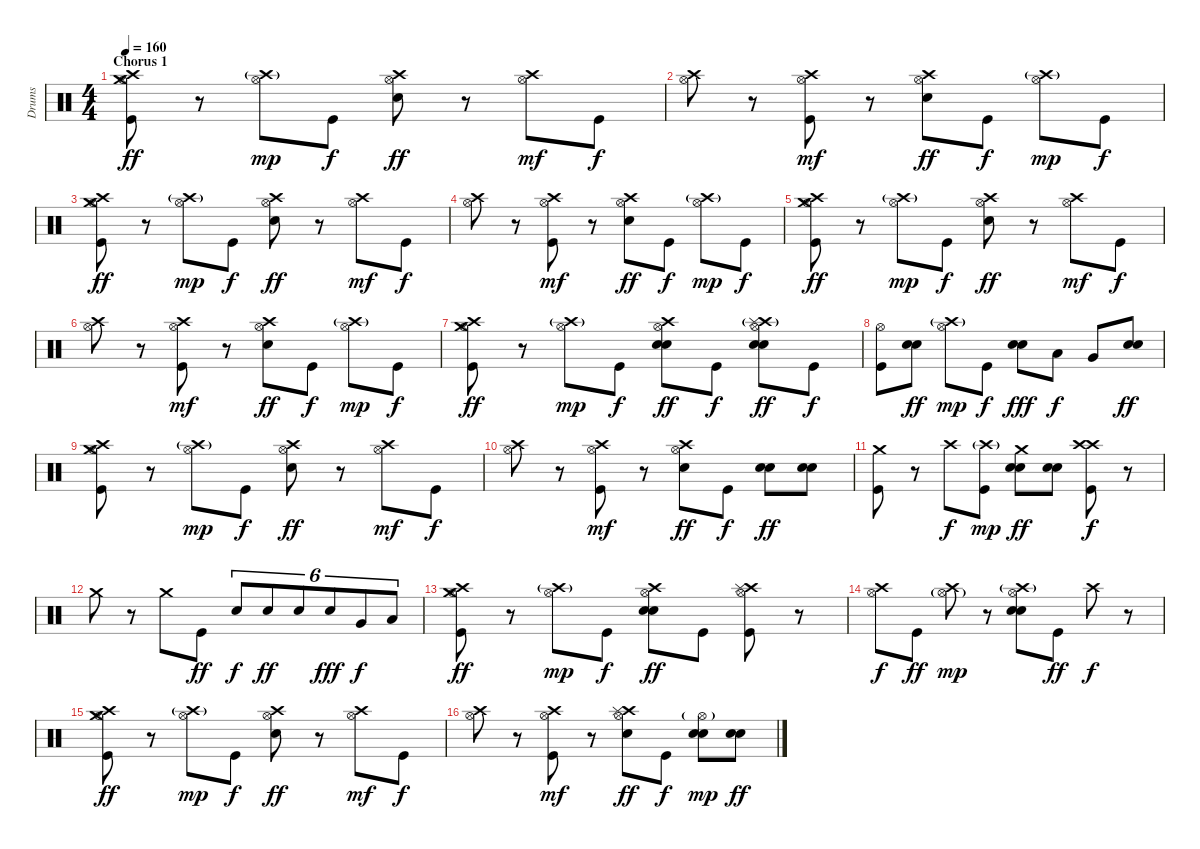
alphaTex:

\track ("Drums" "Drums") {instrument percussion}
\staff {score}
\articulation defaults
\ts (4 4)
\section ("" "Chorus 1")
\tempo 160
\clef neutral
\ks c
("Kick (hit)" "Hi-Hat (open)" "Crash high (hit)" "Crash medium (hit)").8{dy ff} r.8 ("Hi-Hat (open)" "Crash high (hit)"{g}).8{dy mp} "Kick (hit)".8{dy f} ("Electric Snare (hit)" "Hi-Hat (open)" "Crash high (hit)").8{dy ff} r.8 ("Hi-Hat (open)" "Crash high (hit)").8{dy mf} "Kick (hit)".8{dy f} |
("Hi-Hat (open)" "Crash high (hit)").8 r.8 ("Kick (hit)" "Hi-Hat (open)" "Crash high (hit)").8{dy mf} r.8 ("Electric Snare (hit)" "Hi-Hat (open)" "Crash high (hit)").8{dy ff} "Kick (hit)".8{dy f} ("Hi-Hat (open)" "Crash high (hit)"{g}).8{dy mp} "Kick (hit)".8{dy f} |
("Kick (hit)" "Hi-Hat (open)" "Crash high (hit)" "Crash medium (hit)").8{dy ff} r.8 ("Hi-Hat (open)" "Crash high (hit)"{g}).8{dy mp} "Kick (hit)".8{dy f} ("Electric Snare (hit)" "Hi-Hat (open)" "Crash high (hit)").8{dy ff} r.8 ("Hi-Hat (open)" "Crash high (hit)").8{dy mf} "Kick (hit)".8{dy f} |
("Hi-Hat (open)" "Crash high (hit)").8 r.8 ("Kick (hit)" "Hi-Hat (open)" "Crash high (hit)").8{dy mf} r.8 ("Electric Snare (hit)" "Hi-Hat (open)" "Crash high (hit)").8{dy ff} "Kick (hit)".8{dy f} ("Hi-Hat (open)" "Crash high (hit)"{g}).8{dy mp} "Kick (hit)".8{dy f} |
("Kick (hit)" "Hi-Hat (open)" "Crash high (hit)" "Crash medium (hit)").8{dy ff} r.8 ("Hi-Hat (open)" "Crash high (hit)"{g}).8{dy mp} "Kick (hit)".8{dy f} ("Electric Snare (hit)" "Hi-Hat (open)" "Crash high (hit)").8{dy ff} r.8 ("Hi-Hat (open)" "Crash high (hit)").8{dy mf} "Kick (hit)".8{dy f} |
("Hi-Hat (open)" "Crash high (hit)").8 r.8 ("Kick (hit)" "Hi-Hat (open)" "Crash high (hit)").8{dy mf} r.8 ("Electric Snare (hit)" "Hi-Hat (open)" "Crash high (hit)").8{dy ff} "Kick (hit)".8{dy f} ("Hi-Hat (open)" "Crash high (hit)"{g}).8{dy mp} "Kick (hit)".8{dy f} |
("Kick (hit)" "Hi-Hat (open)" "Crash high (hit)" "Crash medium (hit)").8{dy ff} r.8 ("Hi-Hat (open)" "Crash high (hit)"{g}).8{dy mp} "Kick (hit)".8{dy f} ("Electric Snare (hit)" "Electric Snare (hit)" "Hi-Hat (open)" "Crash high (hit)").8{dy ff} "Kick (hit)".8{dy f} ("Electric Snare (hit)" "Electric Snare (hit)" "Hi-Hat (open)" "Crash high (hit)"{g} "Splash (hit)").8{dy ff} "Kick (hit)".8{dy f} |
("Kick (hit)" "Hi-Hat (open)").8 ("Electric Snare (hit)" "Electric Snare (hit)").8{dy ff} ("Hi-Hat (open)" "Crash high (hit)"{g}).8{dy mp} "Kick (hit)".8{dy f} ("Electric Snare (hit)" "Electric Snare (hit)").8{dy fff} "Low Tom (hit)".8{dy f} "Very Low Tom (hit)".8 ("Electric Snare (hit)" "Electric Snare (hit)").8{dy ff} |
("Kick (hit)" "Hi-Hat (open)" "Crash high (hit)" "Crash medium (hit)").8 r.8 ("Hi-Hat (open)" "Crash high (hit)"{g}).8{dy mp} "Kick (hit)".8{dy f} ("Electric Snare (hit)" "Hi-Hat (open)" "Crash high (hit)").8{dy ff} r.8 ("Hi-Hat (open)" "Crash high (hit)").8{dy mf} "Kick (hit)".8{dy f} |
("Hi-Hat (open)" "Crash high (hit)").8 r.8 ("Kick (hit)" "Hi-Hat (open)" "Crash high (hit)").8{dy mf} r.8 ("Electric Snare (hit)" "Hi-Hat (open)" "Crash high (hit)").8{dy ff} "Kick (hit)".8{dy f} ("Electric Snare (hit)" "Electric Snare (hit)").8{dy ff} ("Electric Snare (hit)" "Electric Snare (hit)").8 |
("Kick (hit)" "Crash medium (hit)").8 r.8 "Crash high (hit)".8{dy f} ("Kick (hit)" "Crash high (hit)"{g}).8{dy mp} ("Electric Snare (hit)" "Electric Snare (hit)" "Crash medium (hit)").8{dy ff} ("Electric Snare (hit)" "Electric Snare (hit)").8 ("Kick (hit)" "Crash high (hit)" "Crash high (hit)").8{dy f} r.8 |
"Crash medium (hit)".8 r.8 "Crash medium (hit)".8 "Kick (hit)".8{dy ff} "Electric Snare (hit)".8{tu (6 4) dy f} "Electric Snare (hit)".8{tu (6 4) dy ff} "Electric Snare (hit)".8{tu (6 4)} "Electric Snare (hit)".8{tu (6 4) dy fff} "Very Low Tom (hit)".8{tu (6 4) dy f} "Low Floor Tom (hit)".8{tu (6 4)} |
("Kick (hit)" "Hi-Hat (open)" "Crash high (hit)" "Crash medium (hit)").8{dy ff} r.8 ("Hi-Hat (open)" "Crash high (hit)"{g}).8{dy mp} "Kick (hit)".8{dy f} ("Electric Snare (hit)" "Electric Snare (hit)" "Hi-Hat (open)" "Crash high (hit)").8{dy ff} "Kick (hit)".8 ("Kick (hit)" "Hi-Hat (open)" "Crash high (hit)" "Splash (hit)").8 r.8 |
("Hi-Hat (open)" "Crash high (hit)").8{dy f} "Kick (hit)".8{dy ff} ("Hi-Hat (open)"{g} "Crash high (hit)").8{dy mp} r.8 ("Electric Snare (hit)" "Electric Snare (hit)" "Hi-Hat (open)" "Crash high (hit)"{g}).8 "Kick (hit)".8{dy ff} "Crash high (hit)".8{dy f} r.8 |
("Kick (hit)" "Hi-Hat (open)" "Crash high (hit)" "Crash medium (hit)").8{dy ff} r.8 ("Hi-Hat (open)" "Crash high (hit)"{g}).8{dy mp} "Kick (hit)".8{dy f} ("Electric Snare (hit)" "Hi-Hat (open)" "Crash high (hit)").8{dy ff} r.8 ("Hi-Hat (open)" "Crash high (hit)").8{dy mf} "Kick (hit)".8{dy f} |
("Hi-Hat (open)" "Crash high (hit)").8 r.8 ("Kick (hit)" "Hi-Hat (open)" "Crash high (hit)").8{dy mf} r.8 ("Electric Snare (hit)" "Hi-Hat (open)" "Crash high (hit)" "Splash (hit)").8{dy ff} "Kick (hit)".8{dy f} ("Electric Snare (hit)" "Electric Snare (hit)" "Hi-Hat (open)"{g}).8{dy mp} ("Electric Snare (hit)" "Electric Snare (hit)").8{dy ff}
